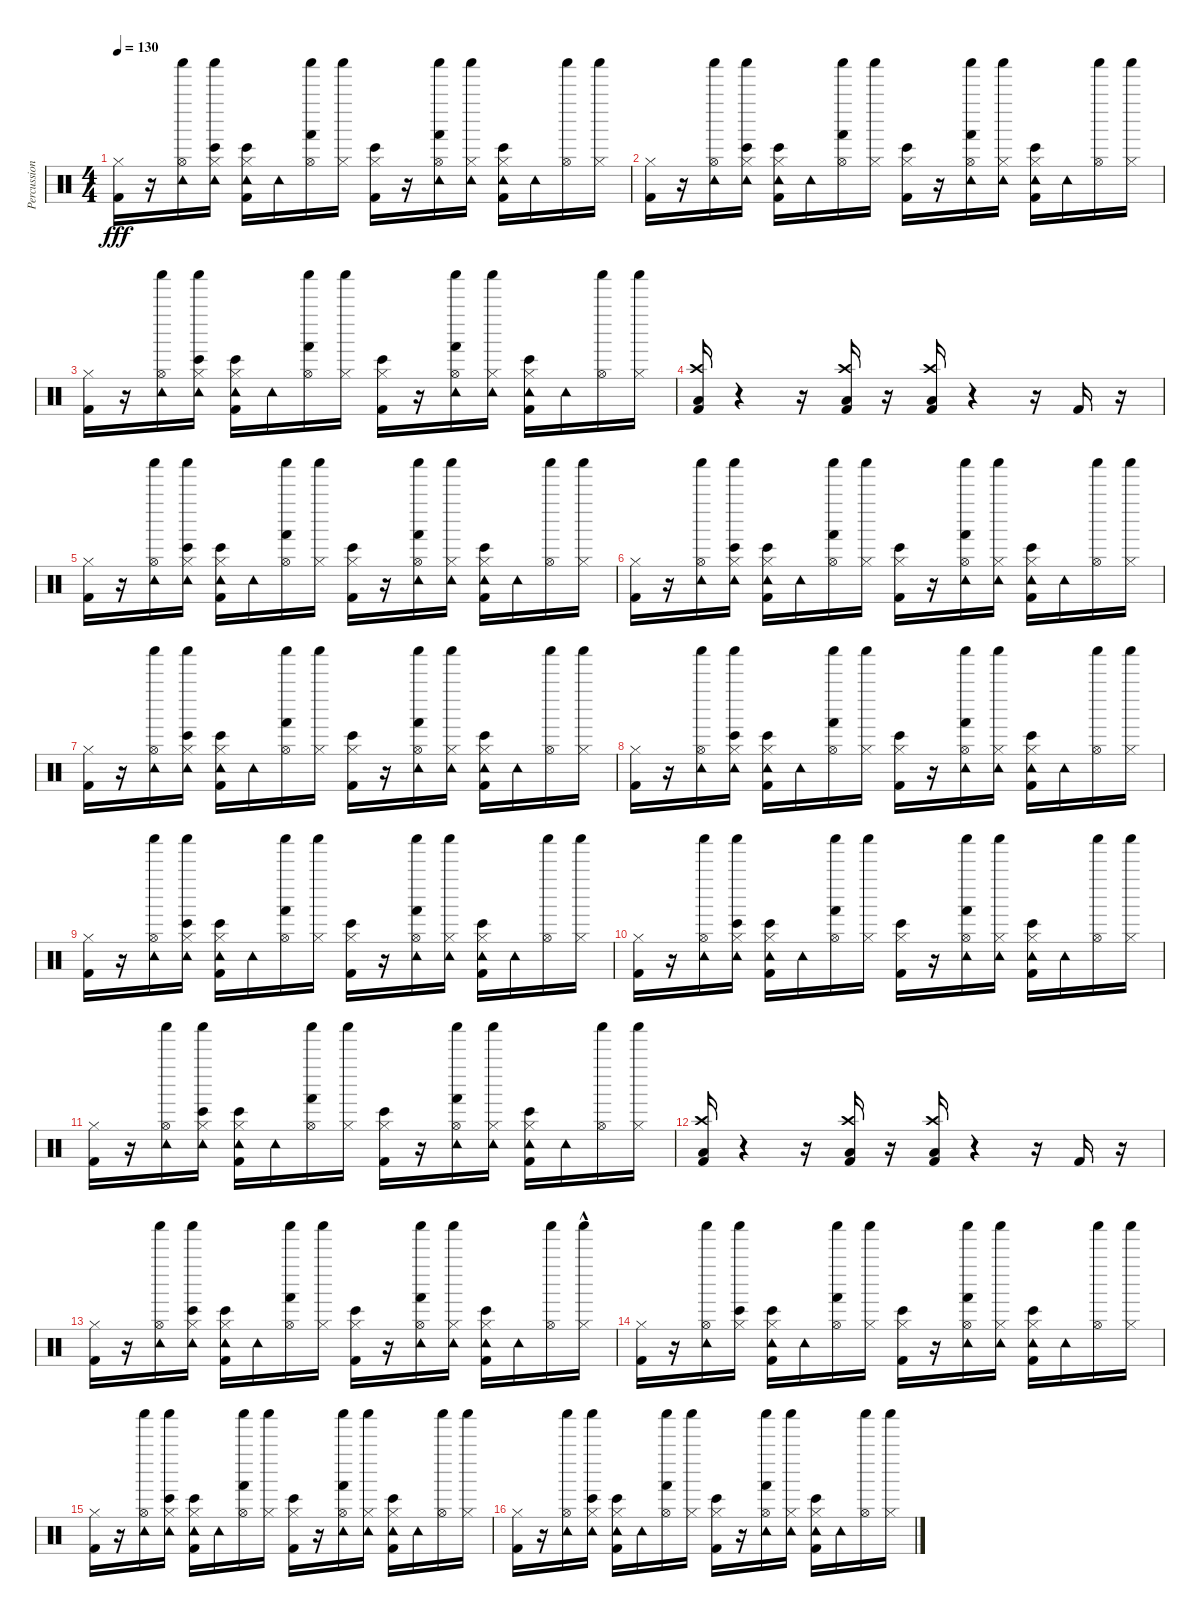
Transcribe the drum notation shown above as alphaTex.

\track ("Percussions" "Percussion") {instrument percussion}
\staff {score}
\articulation defaults
\ts (4 4)
\tempo 130
\clef neutral
\ks c
("Hi-Hat (closed)" "Kick (hit) 2").16{dy fff} r.16 ("Hi-Hat (open)" "Tambourine (hit)" "Shaker (hit)").16 ("Tambourine (hit)" "Shaker (hit)" "Bongo High (hit)" "Hi-Hat (closed)").16 ("Hi-Hat (closed)" "Kick (hit) 2" "Tambourine (hit)" "Bongo High (hit)").16 "Tambourine (hit)".16 ("Hi-Hat (open)" "Shaker (hit)" "Hand (hit)").16 ("Shaker (hit)" "Hi-Hat (closed)").16 ("Hi-Hat (closed)" "Kick (hit) 2" "Bongo High (hit)").16 r.16 ("Hi-Hat (open)" "Tambourine (hit)" "Shaker (hit)" "Hand (hit)").16 ("Tambourine (hit)" "Shaker (hit)" "Hi-Hat (closed)").16 ("Hi-Hat (closed)" "Kick (hit) 2" "Tambourine (hit)" "Bongo High (hit)").16 "Tambourine (hit)".16 ("Hi-Hat (open)" "Shaker (hit)").16 ("Shaker (hit)" "Hi-Hat (closed)").16 |
("Hi-Hat (closed)" "Kick (hit) 2").16 r.16 ("Hi-Hat (open)" "Tambourine (hit)" "Shaker (hit)").16 ("Tambourine (hit)" "Shaker (hit)" "Bongo High (hit)" "Hi-Hat (closed)").16 ("Hi-Hat (closed)" "Kick (hit) 2" "Tambourine (hit)" "Bongo High (hit)").16 "Tambourine (hit)".16 ("Hi-Hat (open)" "Shaker (hit)" "Hand (hit)").16 ("Shaker (hit)" "Hi-Hat (closed)").16 ("Hi-Hat (closed)" "Kick (hit) 2" "Bongo High (hit)").16 r.16 ("Hi-Hat (open)" "Tambourine (hit)" "Shaker (hit)" "Hand (hit)").16 ("Tambourine (hit)" "Shaker (hit)" "Hi-Hat (closed)").16 ("Hi-Hat (closed)" "Kick (hit) 2" "Tambourine (hit)" "Bongo High (hit)").16 "Tambourine (hit)".16 ("Hi-Hat (open)" "Shaker (hit)").16 ("Shaker (hit)" "Hi-Hat (closed)").16 |
("Hi-Hat (closed)" "Kick (hit) 2").16 r.16 ("Hi-Hat (open)" "Tambourine (hit)" "Shaker (hit)").16 ("Tambourine (hit)" "Shaker (hit)" "Bongo High (hit)" "Hi-Hat (closed)").16 ("Hi-Hat (closed)" "Kick (hit) 2" "Tambourine (hit)" "Bongo High (hit)").16 "Tambourine (hit)".16 ("Hi-Hat (open)" "Shaker (hit)" "Hand (hit)").16 ("Shaker (hit)" "Hi-Hat (closed)").16 ("Hi-Hat (closed)" "Kick (hit) 2" "Bongo High (hit)").16 r.16 ("Hi-Hat (open)" "Tambourine (hit)" "Shaker (hit)" "Hand (hit)").16 ("Tambourine (hit)" "Shaker (hit)" "Hi-Hat (closed)").16 ("Hi-Hat (closed)" "Kick (hit) 2" "Tambourine (hit)" "Bongo High (hit)").16 "Tambourine (hit)".16 ("Hi-Hat (open)" "Shaker (hit)").16 ("Shaker (hit)" "Hi-Hat (closed)").16 |
("Crash high (hit)" "Low Tom (hit)" "Kick (hit) 2").16 r.4 r.16 ("Crash high (hit)" "Low Tom (hit)" "Kick (hit) 2").16 r.16 ("Crash high (hit)" "Low Tom (hit)" "Kick (hit) 2").16 r.4 r.16 "Kick (hit) 2".16 r.16 |
("Hi-Hat (closed)" "Kick (hit) 2").16 r.16 ("Hi-Hat (open)" "Tambourine (hit)" "Shaker (hit)").16 ("Tambourine (hit)" "Shaker (hit)" "Bongo High (hit)" "Hi-Hat (closed)").16 ("Hi-Hat (closed)" "Kick (hit) 2" "Tambourine (hit)" "Bongo High (hit)").16 "Tambourine (hit)".16 ("Hi-Hat (open)" "Shaker (hit)" "Hand (hit)").16 ("Shaker (hit)" "Hi-Hat (closed)").16 ("Hi-Hat (closed)" "Kick (hit) 2" "Bongo High (hit)").16 r.16 ("Hi-Hat (open)" "Tambourine (hit)" "Shaker (hit)" "Hand (hit)").16 ("Tambourine (hit)" "Shaker (hit)" "Hi-Hat (closed)").16 ("Hi-Hat (closed)" "Kick (hit) 2" "Tambourine (hit)" "Bongo High (hit)").16 "Tambourine (hit)".16 ("Hi-Hat (open)" "Shaker (hit)").16 ("Shaker (hit)" "Hi-Hat (closed)").16 |
("Hi-Hat (closed)" "Kick (hit) 2").16 r.16 ("Hi-Hat (open)" "Tambourine (hit)" "Shaker (hit)").16 ("Tambourine (hit)" "Shaker (hit)" "Bongo High (hit)" "Hi-Hat (closed)").16 ("Hi-Hat (closed)" "Kick (hit) 2" "Tambourine (hit)" "Bongo High (hit)").16 "Tambourine (hit)".16 ("Hi-Hat (open)" "Shaker (hit)" "Hand (hit)").16 ("Shaker (hit)" "Hi-Hat (closed)").16 ("Hi-Hat (closed)" "Kick (hit) 2" "Bongo High (hit)").16 r.16 ("Hi-Hat (open)" "Tambourine (hit)" "Shaker (hit)" "Hand (hit)").16 ("Tambourine (hit)" "Shaker (hit)" "Hi-Hat (closed)").16 ("Hi-Hat (closed)" "Kick (hit) 2" "Tambourine (hit)" "Bongo High (hit)").16 "Tambourine (hit)".16 ("Hi-Hat (open)" "Shaker (hit)").16 ("Shaker (hit)" "Hi-Hat (closed)").16 |
("Hi-Hat (closed)" "Kick (hit) 2").16 r.16 ("Hi-Hat (open)" "Tambourine (hit)" "Shaker (hit)").16 ("Tambourine (hit)" "Shaker (hit)" "Bongo High (hit)" "Hi-Hat (closed)").16 ("Hi-Hat (closed)" "Kick (hit) 2" "Tambourine (hit)" "Bongo High (hit)").16 "Tambourine (hit)".16 ("Hi-Hat (open)" "Shaker (hit)" "Hand (hit)").16 ("Shaker (hit)" "Hi-Hat (closed)").16 ("Hi-Hat (closed)" "Kick (hit) 2" "Bongo High (hit)").16 r.16 ("Hi-Hat (open)" "Tambourine (hit)" "Shaker (hit)" "Hand (hit)").16 ("Tambourine (hit)" "Shaker (hit)" "Hi-Hat (closed)").16 ("Hi-Hat (closed)" "Kick (hit) 2" "Tambourine (hit)" "Bongo High (hit)").16 "Tambourine (hit)".16 ("Hi-Hat (open)" "Shaker (hit)").16 ("Shaker (hit)" "Hi-Hat (closed)").16 |
("Hi-Hat (closed)" "Kick (hit) 2").16 r.16 ("Hi-Hat (open)" "Tambourine (hit)" "Shaker (hit)").16 ("Tambourine (hit)" "Shaker (hit)" "Bongo High (hit)" "Hi-Hat (closed)").16 ("Hi-Hat (closed)" "Kick (hit) 2" "Tambourine (hit)" "Bongo High (hit)").16 "Tambourine (hit)".16 ("Hi-Hat (open)" "Shaker (hit)" "Hand (hit)").16 ("Shaker (hit)" "Hi-Hat (closed)").16 ("Hi-Hat (closed)" "Kick (hit) 2" "Bongo High (hit)").16 r.16 ("Hi-Hat (open)" "Tambourine (hit)" "Shaker (hit)" "Hand (hit)").16 ("Tambourine (hit)" "Shaker (hit)" "Hi-Hat (closed)").16 ("Hi-Hat (closed)" "Kick (hit) 2" "Tambourine (hit)" "Bongo High (hit)").16 "Tambourine (hit)".16 ("Hi-Hat (open)" "Shaker (hit)").16 ("Shaker (hit)" "Hi-Hat (closed)").16 |
("Hi-Hat (closed)" "Kick (hit) 2").16 r.16 ("Hi-Hat (open)" "Tambourine (hit)" "Shaker (hit)").16 ("Tambourine (hit)" "Shaker (hit)" "Bongo High (hit)" "Hi-Hat (closed)").16 ("Hi-Hat (closed)" "Kick (hit) 2" "Tambourine (hit)" "Bongo High (hit)").16 "Tambourine (hit)".16 ("Hi-Hat (open)" "Shaker (hit)" "Hand (hit)").16 ("Shaker (hit)" "Hi-Hat (closed)").16 ("Hi-Hat (closed)" "Kick (hit) 2" "Bongo High (hit)").16 r.16 ("Hi-Hat (open)" "Tambourine (hit)" "Shaker (hit)" "Hand (hit)").16 ("Tambourine (hit)" "Shaker (hit)" "Hi-Hat (closed)").16 ("Hi-Hat (closed)" "Kick (hit) 2" "Tambourine (hit)" "Bongo High (hit)").16 "Tambourine (hit)".16 ("Hi-Hat (open)" "Shaker (hit)").16 ("Shaker (hit)" "Hi-Hat (closed)").16 |
("Hi-Hat (closed)" "Kick (hit) 2").16 r.16 ("Hi-Hat (open)" "Tambourine (hit)" "Shaker (hit)").16 ("Tambourine (hit)" "Shaker (hit)" "Bongo High (hit)" "Hi-Hat (closed)").16 ("Hi-Hat (closed)" "Kick (hit) 2" "Tambourine (hit)" "Bongo High (hit)").16 "Tambourine (hit)".16 ("Hi-Hat (open)" "Shaker (hit)" "Hand (hit)").16 ("Shaker (hit)" "Hi-Hat (closed)").16 ("Hi-Hat (closed)" "Kick (hit) 2" "Bongo High (hit)").16 r.16 ("Hi-Hat (open)" "Tambourine (hit)" "Shaker (hit)" "Hand (hit)").16 ("Tambourine (hit)" "Shaker (hit)" "Hi-Hat (closed)").16 ("Hi-Hat (closed)" "Kick (hit) 2" "Tambourine (hit)" "Bongo High (hit)").16 "Tambourine (hit)".16 ("Hi-Hat (open)" "Shaker (hit)").16 ("Shaker (hit)" "Hi-Hat (closed)").16 |
("Hi-Hat (closed)" "Kick (hit) 2").16 r.16 ("Hi-Hat (open)" "Tambourine (hit)" "Shaker (hit)").16 ("Tambourine (hit)" "Shaker (hit)" "Bongo High (hit)" "Hi-Hat (closed)").16 ("Hi-Hat (closed)" "Kick (hit) 2" "Tambourine (hit)" "Bongo High (hit)").16 "Tambourine (hit)".16 ("Hi-Hat (open)" "Shaker (hit)" "Hand (hit)").16 ("Shaker (hit)" "Hi-Hat (closed)").16 ("Hi-Hat (closed)" "Kick (hit) 2" "Bongo High (hit)").16 r.16 ("Hi-Hat (open)" "Tambourine (hit)" "Shaker (hit)" "Hand (hit)").16 ("Tambourine (hit)" "Shaker (hit)" "Hi-Hat (closed)").16 ("Hi-Hat (closed)" "Kick (hit) 2" "Tambourine (hit)" "Bongo High (hit)").16 "Tambourine (hit)".16 ("Hi-Hat (open)" "Shaker (hit)").16 ("Shaker (hit)" "Hi-Hat (closed)").16 |
("Crash high (hit)" "Low Tom (hit)" "Kick (hit) 2").16 r.4 r.16 ("Crash high (hit)" "Low Tom (hit)" "Kick (hit) 2").16 r.16 ("Crash high (hit)" "Low Tom (hit)" "Kick (hit) 2").16 r.4 r.16 "Kick (hit) 2".16 r.16 |
("Hi-Hat (closed)" "Kick (hit) 2").16 r.16 ("Hi-Hat (open)" "Tambourine (hit)" "Shaker (hit)").16 ("Tambourine (hit)" "Shaker (hit)" "Bongo High (hit)" "Hi-Hat (closed)").16 ("Hi-Hat (closed)" "Kick (hit) 2" "Tambourine (hit)" "Bongo High (hit)").16 "Tambourine (hit)".16 ("Hi-Hat (open)" "Shaker (hit)" "Hand (hit)").16 ("Shaker (hit)" "Hi-Hat (closed)").16 ("Hi-Hat (closed)" "Kick (hit) 2" "Bongo High (hit)").16 r.16 ("Hi-Hat (open)" "Tambourine (hit)" "Shaker (hit)" "Hand (hit)").16 ("Tambourine (hit)" "Shaker (hit)" "Hi-Hat (closed)").16 ("Hi-Hat (closed)" "Kick (hit) 2" "Tambourine (hit)" "Bongo High (hit)").16 "Tambourine (hit)".16 ("Hi-Hat (open)" "Shaker (hit)").16 ("Shaker (hit)"{hac} "Hi-Hat (closed)").16 |
("Hi-Hat (closed)" "Kick (hit) 2").16 r.16 ("Hi-Hat (open)" "Tambourine (hit)" "Shaker (hit)").16 ("Shaker (hit)" "Bongo High (hit)" "Hi-Hat (closed)").16 ("Hi-Hat (closed)" "Kick (hit) 2" "Tambourine (hit)" "Bongo High (hit)").16 "Tambourine (hit)".16 ("Hi-Hat (open)" "Shaker (hit)" "Hand (hit)").16 ("Shaker (hit)" "Hi-Hat (closed)").16 ("Hi-Hat (closed)" "Kick (hit) 2" "Bongo High (hit)").16 r.16 ("Hi-Hat (open)" "Tambourine (hit)" "Shaker (hit)" "Hand (hit)").16 ("Tambourine (hit)" "Shaker (hit)" "Hi-Hat (closed)").16 ("Hi-Hat (closed)" "Kick (hit) 2" "Tambourine (hit)" "Bongo High (hit)").16 "Tambourine (hit)".16 ("Hi-Hat (open)" "Shaker (hit)").16 ("Shaker (hit)" "Hi-Hat (closed)").16 |
("Hi-Hat (closed)" "Kick (hit) 2").16 r.16 ("Hi-Hat (open)" "Tambourine (hit)" "Shaker (hit)").16 ("Tambourine (hit)" "Shaker (hit)" "Bongo High (hit)" "Hi-Hat (closed)").16 ("Hi-Hat (closed)" "Kick (hit) 2" "Tambourine (hit)" "Bongo High (hit)").16 "Tambourine (hit)".16 ("Hi-Hat (open)" "Shaker (hit)" "Hand (hit)").16 ("Shaker (hit)" "Hi-Hat (closed)").16 ("Hi-Hat (closed)" "Kick (hit) 2" "Bongo High (hit)").16 r.16 ("Hi-Hat (open)" "Tambourine (hit)" "Shaker (hit)" "Hand (hit)").16 ("Tambourine (hit)" "Shaker (hit)" "Hi-Hat (closed)").16 ("Hi-Hat (closed)" "Kick (hit) 2" "Tambourine (hit)" "Bongo High (hit)").16 "Tambourine (hit)".16 ("Hi-Hat (open)" "Shaker (hit)").16 ("Shaker (hit)" "Hi-Hat (closed)").16 |
("Hi-Hat (closed)" "Kick (hit) 2").16 r.16 ("Hi-Hat (open)" "Tambourine (hit)" "Shaker (hit)").16 ("Tambourine (hit)" "Shaker (hit)" "Bongo High (hit)" "Hi-Hat (closed)").16 ("Hi-Hat (closed)" "Kick (hit) 2" "Tambourine (hit)" "Bongo High (hit)").16 "Tambourine (hit)".16 ("Hi-Hat (open)" "Shaker (hit)" "Hand (hit)").16 ("Shaker (hit)" "Hi-Hat (closed)").16 ("Hi-Hat (closed)" "Kick (hit) 2" "Bongo High (hit)").16 r.16 ("Hi-Hat (open)" "Tambourine (hit)" "Shaker (hit)" "Hand (hit)").16 ("Tambourine (hit)" "Shaker (hit)" "Hi-Hat (closed)").16 ("Hi-Hat (closed)" "Kick (hit) 2" "Tambourine (hit)" "Bongo High (hit)").16 "Tambourine (hit)".16 ("Hi-Hat (open)" "Shaker (hit)").16 ("Shaker (hit)" "Hi-Hat (closed)").16
